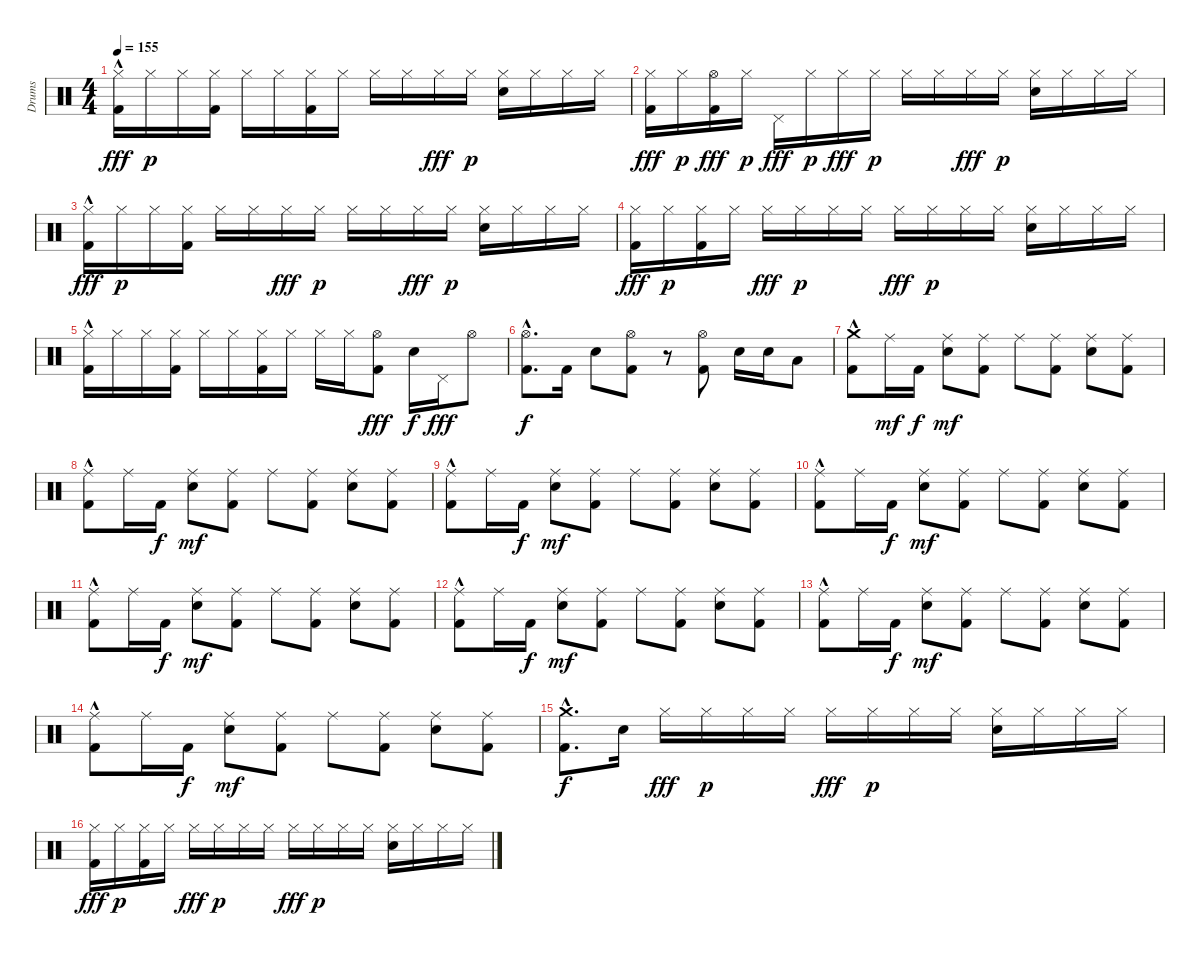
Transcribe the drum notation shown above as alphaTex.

\track ("Drums" "Drums") {instrument percussion}
\staff {score}
\articulation defaults
\ts (4 4)
\tempo 155
\clef neutral
\ks c
("Hi-Hat (closed)" "Kick (hit) 2"{hac}).16{dy fff} "Hi-Hat (closed)".16{dy p} "Hi-Hat (closed)".16 ("Hi-Hat (closed)" "Kick (hit) 2").16 "Hi-Hat (closed)".16 "Hi-Hat (closed)".16 ("Hi-Hat (closed)" "Kick (hit) 2").16 "Hi-Hat (closed)".16 "Hi-Hat (closed)".16 "Hi-Hat (closed)".16 "Hi-Hat (closed)".16{dy fff} "Hi-Hat (closed)".16{dy p} ("Hi-Hat (closed)" "Snare (hit) 2").16 "Hi-Hat (closed)".16 "Hi-Hat (closed)".16 "Hi-Hat (closed)".16 |
("Hi-Hat (closed)" "Kick (hit) 2").16{dy fff} "Hi-Hat (closed)".16{dy p} ("Hi-Hat (open)" "Kick (hit) 2").16{dy fff} "Hi-Hat (closed)".16{dy p} "Pedal Hi-Hat (hit)".16{dy fff} "Hi-Hat (closed)".16{dy p} "Hi-Hat (closed)".16{dy fff} "Hi-Hat (closed)".16{dy p} "Hi-Hat (closed)".16 "Hi-Hat (closed)".16 "Hi-Hat (closed)".16{dy fff} "Hi-Hat (closed)".16{dy p} ("Hi-Hat (closed)" "Snare (hit) 2").16 "Hi-Hat (closed)".16 "Hi-Hat (closed)".16 "Hi-Hat (closed)".16 |
("Hi-Hat (closed)" "Kick (hit) 2"{hac}).16{dy fff} "Hi-Hat (closed)".16{dy p} "Hi-Hat (closed)".16 ("Hi-Hat (closed)" "Kick (hit) 2").16 "Hi-Hat (closed)".16 "Hi-Hat (closed)".16 "Hi-Hat (closed)".16{dy fff} "Hi-Hat (closed)".16{dy p} "Hi-Hat (closed)".16 "Hi-Hat (closed)".16 "Hi-Hat (closed)".16{dy fff} "Hi-Hat (closed)".16{dy p} ("Hi-Hat (closed)" "Snare (hit) 2").16 "Hi-Hat (closed)".16 "Hi-Hat (closed)".16 "Hi-Hat (closed)".16 |
("Hi-Hat (closed)" "Kick (hit) 2").16{dy fff} "Hi-Hat (closed)".16{dy p} ("Hi-Hat (closed)" "Kick (hit) 2").16 "Hi-Hat (closed)".16 "Hi-Hat (closed)".16{dy fff} "Hi-Hat (closed)".16{dy p} "Hi-Hat (closed)".16 "Hi-Hat (closed)".16 "Hi-Hat (closed)".16{dy fff} "Hi-Hat (closed)".16{dy p} "Hi-Hat (closed)".16 "Hi-Hat (closed)".16 ("Hi-Hat (closed)" "Snare (hit) 2").16 "Hi-Hat (closed)".16 "Hi-Hat (closed)".16 "Hi-Hat (closed)".16 |
("Hi-Hat (closed)" "Kick (hit) 2"{hac}).16 "Hi-Hat (closed)".16 "Hi-Hat (closed)".16 ("Hi-Hat (closed)" "Kick (hit) 2").16 "Hi-Hat (closed)".16 "Hi-Hat (closed)".16 ("Hi-Hat (closed)" "Kick (hit) 2").16 "Hi-Hat (closed)".16 "Hi-Hat (closed)".16 "Hi-Hat (closed)".16 ("Hi-Hat (open)" "Kick (hit) 2").8{dy fff} "Snare (hit) 2".16{dy f} "Pedal Hi-Hat (hit)".16{dy fff} "Hi-Hat (open)".8 |
("Hi-Hat (open)" "Kick (hit) 2"{hac}).8{d dy f} "Kick (hit) 2".16 "Snare (hit) 2".8 ("Hi-Hat (open)" "Kick (hit) 2").8 r.8 ("Kick (hit) 2" "Hi-Hat (open)").8 "Snare (hit) 2".16 "Snare (hit) 2".16 "Low Tom (hit)".8 |
("Crash medium (hit)" "Kick (hit) 2"{hac}).8 "Ride (middle)".16{dy mf} "Kick (hit) 2".16{dy f} ("Snare (hit) 2" "Ride (middle)").8{dy mf} ("Ride (middle)" "Kick (hit) 2").8 "Ride (middle)".8 ("Kick (hit) 2" "Ride (middle)").8 ("Snare (hit) 2" "Ride (middle)").8 ("Kick (hit) 2" "Ride (middle)").8 |
("Ride (middle)" "Kick (hit) 2"{hac}).8 "Ride (middle)".16 "Kick (hit) 2".16{dy f} ("Snare (hit) 2" "Ride (middle)").8{dy mf} ("Ride (middle)" "Kick (hit) 2").8 "Ride (middle)".8 ("Kick (hit) 2" "Ride (middle)").8 ("Snare (hit) 2" "Ride (middle)").8 ("Kick (hit) 2" "Ride (middle)").8 |
("Ride (middle)" "Kick (hit) 2"{hac}).8 "Ride (middle)".16 "Kick (hit) 2".16{dy f} ("Snare (hit) 2" "Ride (middle)").8{dy mf} ("Ride (middle)" "Kick (hit) 2").8 "Ride (middle)".8 ("Kick (hit) 2" "Ride (middle)").8 ("Snare (hit) 2" "Ride (middle)").8 ("Kick (hit) 2" "Ride (middle)").8 |
("Ride (middle)" "Kick (hit) 2"{hac}).8 "Ride (middle)".16 "Kick (hit) 2".16{dy f} ("Snare (hit) 2" "Ride (middle)").8{dy mf} ("Ride (middle)" "Kick (hit) 2").8 "Ride (middle)".8 ("Kick (hit) 2" "Ride (middle)").8 ("Snare (hit) 2" "Ride (middle)").8 ("Kick (hit) 2" "Ride (middle)").8 |
("Ride (middle)" "Kick (hit) 2"{hac}).8 "Ride (middle)".16 "Kick (hit) 2".16{dy f} ("Snare (hit) 2" "Ride (middle)").8{dy mf} ("Ride (middle)" "Kick (hit) 2").8 "Ride (middle)".8 ("Kick (hit) 2" "Ride (middle)").8 ("Snare (hit) 2" "Ride (middle)").8 ("Kick (hit) 2" "Ride (middle)").8 |
("Ride (middle)" "Kick (hit) 2"{hac}).8 "Ride (middle)".16 "Kick (hit) 2".16{dy f} ("Snare (hit) 2" "Ride (middle)").8{dy mf} ("Ride (middle)" "Kick (hit) 2").8 "Ride (middle)".8 ("Kick (hit) 2" "Ride (middle)").8 ("Snare (hit) 2" "Ride (middle)").8 ("Kick (hit) 2" "Ride (middle)").8 |
("Ride (middle)" "Kick (hit) 2"{hac}).8 "Ride (middle)".16 "Kick (hit) 2".16{dy f} ("Snare (hit) 2" "Ride (middle)").8{dy mf} ("Ride (middle)" "Kick (hit) 2").8 "Ride (middle)".8 ("Kick (hit) 2" "Ride (middle)").8 ("Snare (hit) 2" "Ride (middle)").8 ("Kick (hit) 2" "Ride (middle)").8 |
("Ride (middle)" "Kick (hit) 2"{hac}).8 "Ride (middle)".16 "Kick (hit) 2".16{dy f} ("Snare (hit) 2" "Ride (middle)").8{dy mf} ("Ride (middle)" "Kick (hit) 2").8 "Ride (middle)".8 ("Kick (hit) 2" "Ride (middle)").8 ("Snare (hit) 2" "Ride (middle)").8 ("Kick (hit) 2" "Ride (middle)").8 |
("Crash medium (hit)" "Kick (hit) 2"{hac}).8{d dy f} "Snare (hit)".16 "Hi-Hat (closed)".16{dy fff} "Hi-Hat (closed)".16{dy p} "Hi-Hat (closed)".16 "Hi-Hat (closed)".16 "Hi-Hat (closed)".16{dy fff} "Hi-Hat (closed)".16{dy p} "Hi-Hat (closed)".16 "Hi-Hat (closed)".16 ("Hi-Hat (closed)" "Snare (hit) 2").16 "Hi-Hat (closed)".16 "Hi-Hat (closed)".16 "Hi-Hat (closed)".16 |
("Hi-Hat (closed)" "Kick (hit) 2").16{dy fff} "Hi-Hat (closed)".16{dy p} ("Hi-Hat (closed)" "Kick (hit) 2").16 "Hi-Hat (closed)".16 "Hi-Hat (closed)".16{dy fff} "Hi-Hat (closed)".16{dy p} "Hi-Hat (closed)".16 "Hi-Hat (closed)".16 "Hi-Hat (closed)".16{dy fff} "Hi-Hat (closed)".16{dy p} "Hi-Hat (closed)".16 "Hi-Hat (closed)".16 ("Hi-Hat (closed)" "Snare (hit) 2").16 "Hi-Hat (closed)".16 "Hi-Hat (closed)".16 "Hi-Hat (closed)".16
